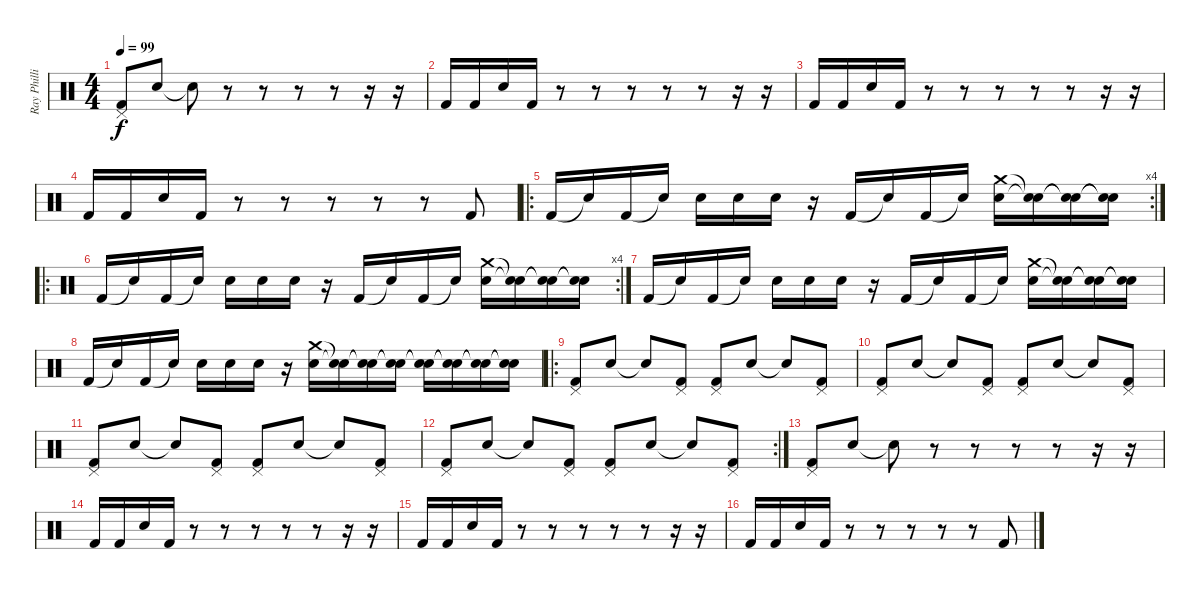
\track ("Ray Phillips" "Ray Philli") {instrument percussion}
\staff {score}
\articulation defaults
\ts (4 4)
\tempo 99
\clef neutral
\ks c
("Kick (hit) 2" "Pedal Hi-Hat (hit)").8{dy f} "Snare (hit) 2".8 "Snare (hit)"{t}.8 r.8 r.8 r.8 r.8 r.16 r.16 |
"Kick (hit) 2".16 "Kick (hit) 2".16 "Snare (hit) 2".16 "Kick (hit) 2".16 r.8 r.8 r.8 r.8 r.8 r.16 r.16 |
"Kick (hit) 2".16 "Kick (hit) 2".16 "Snare (hit) 2".16 "Kick (hit) 2".16 r.8 r.8 r.8 r.8 r.8 r.16 r.16 |
"Kick (hit) 2".16 "Kick (hit) 2".16 "Snare (hit) 2".16 "Kick (hit) 2".16 r.8 r.8 r.8 r.8 r.8 "Kick (hit) 2".8 |
\ro
\rc 4 "Kick (hit) 2".16 "Snare (hit)"{t}.16 "Kick (hit) 2".16 "Snare (hit)"{t}.16 "Snare (hit) 2".16 "Snare (hit) 2".16 "Snare (hit) 2".16
r.16 "Kick (hit) 2".16 "Snare (hit)"{t}.16 "Kick (hit) 2".16 "Snare (hit)"{t}.16 ("Snare (hit) 2" "Crash medium (hit)").16 ("Snare (hit)"{t} "Snare (hit)"{t}).16 ("Snare (hit)"{t} "Snare (hit)"{t}).16 ("Snare (hit)"{t} "Snare (hit)"{t}).16 |
\ro
\rc 4 "Kick (hit) 2".16 "Snare (hit)"{t}.16 "Kick (hit) 2".16 "Snare (hit)"{t}.16 "Snare (hit) 2".16 "Snare (hit) 2".16 "Snare (hit) 2".16
r.16 "Kick (hit) 2".16 "Snare (hit)"{t}.16 "Kick (hit) 2".16 "Snare (hit)"{t}.16 ("Snare (hit) 2" "Crash medium (hit)").16 ("Snare (hit)"{t} "Snare (hit)"{t}).16 ("Snare (hit)"{t} "Snare (hit)"{t}).16 ("Snare (hit)"{t} "Snare (hit)"{t}).16 |
"Kick (hit) 2".16 "Snare (hit)"{t}.16 "Kick (hit) 2".16 "Snare (hit)"{t}.16 "Snare (hit) 2".16 "Snare (hit) 2".16 "Snare (hit) 2".16 r.16 "Kick (hit) 2".16 "Snare (hit)"{t}.16 "Kick (hit) 2".16 "Snare (hit)"{t}.16 ("Snare (hit) 2" "Crash medium (hit)").16 ("Snare (hit)"{t} "Snare (hit)"{t}).16 ("Snare (hit)"{t} "Snare (hit)"{t}).16 ("Snare (hit)"{t} "Snare (hit)"{t}).16 |
"Kick (hit) 2".16 "Snare (hit)"{t}.16 "Kick (hit) 2".16 "Snare (hit)"{t}.16 "Snare (hit) 2".16 "Snare (hit) 2".16 "Snare (hit) 2".16 r.16 ("Snare (hit) 2" "Crash medium (hit)").16 ("Snare (hit)"{t} "Snare (hit)"{t}).16 ("Snare (hit)"{t} "Snare (hit)"{t}).16 ("Snare (hit)"{t} "Snare (hit)"{t}).16 ("Snare (hit)"{t} "Snare (hit)"{t}).16 ("Snare (hit)"{t} "Snare (hit)"{t}).16 ("Snare (hit)"{t} "Snare (hit)"{t}).16 ("Snare (hit)"{t} "Snare (hit)"{t}).16 |
\ro
("Kick (hit) 2" "Pedal Hi-Hat (hit)").8 "Snare (hit) 2".8 "Snare (hit)"{t}.8 ("Kick (hit) 2" "Pedal Hi-Hat (hit)").8 ("Kick (hit) 2" "Pedal Hi-Hat (hit)").8 "Snare (hit) 2".8 "Snare (hit)"{t}.8 ("Kick (hit) 2" "Pedal Hi-Hat (hit)").8 |
("Kick (hit) 2" "Pedal Hi-Hat (hit)").8 "Snare (hit) 2".8 "Snare (hit)"{t}.8 ("Kick (hit) 2" "Pedal Hi-Hat (hit)").8 ("Kick (hit) 2" "Pedal Hi-Hat (hit)").8 "Snare (hit) 2".8 "Snare (hit)"{t}.8 ("Kick (hit) 2" "Pedal Hi-Hat (hit)").8 |
("Kick (hit) 2" "Pedal Hi-Hat (hit)").8 "Snare (hit) 2".8 "Snare (hit)"{t}.8 ("Kick (hit) 2" "Pedal Hi-Hat (hit)").8 ("Kick (hit) 2" "Pedal Hi-Hat (hit)").8 "Snare (hit) 2".8 "Snare (hit)"{t}.8 ("Kick (hit) 2" "Pedal Hi-Hat (hit)").8 |
\rc 2
("Kick (hit) 2" "Pedal Hi-Hat (hit)").8 "Snare (hit) 2".8 "Snare (hit)"{t}.8 ("Kick (hit) 2" "Pedal Hi-Hat (hit)").8 ("Kick (hit) 2" "Pedal Hi-Hat (hit)").8 "Snare (hit) 2".8 "Snare (hit)"{t}.8 ("Kick (hit) 2" "Pedal Hi-Hat (hit)").8 |
("Kick (hit) 2" "Pedal Hi-Hat (hit)").8 "Snare (hit) 2".8 "Snare (hit)"{t}.8 r.8 r.8 r.8 r.8 r.16 r.16 |
"Kick (hit) 2".16 "Kick (hit) 2".16 "Snare (hit) 2".16 "Kick (hit) 2".16 r.8 r.8 r.8 r.8 r.8 r.16 r.16 |
"Kick (hit) 2".16 "Kick (hit) 2".16 "Snare (hit) 2".16 "Kick (hit) 2".16 r.8 r.8 r.8 r.8 r.8 r.16 r.16 |
"Kick (hit) 2".16 "Kick (hit) 2".16 "Snare (hit) 2".16 "Kick (hit) 2".16 r.8 r.8 r.8 r.8 r.8 "Kick (hit) 2".8
